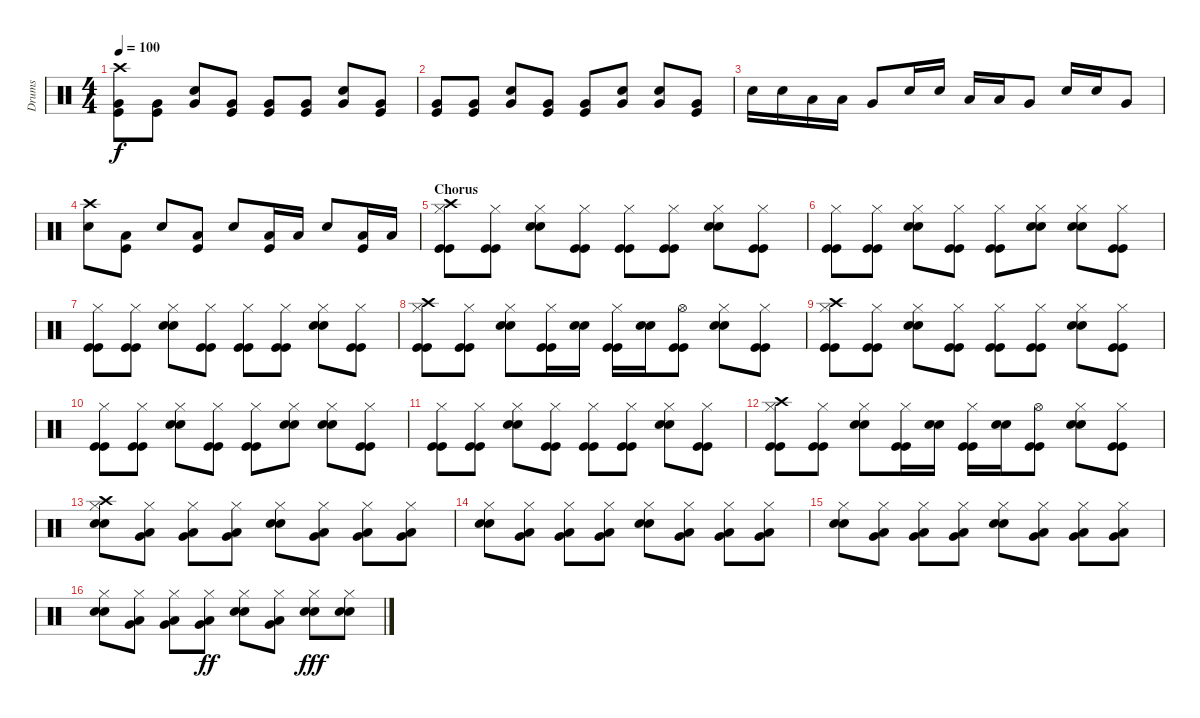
\track ("Drums" "Drums") {instrument percussion}
\staff {score}
\articulation defaults
\ts (4 4)
\tempo 100
\clef neutral
\ks c
("Crash high (hit)" "Very Low Tom (hit)" "Kick (hit)").8{dy f} ("Very Low Tom (hit)" "Kick (hit)").8 ("Very Low Tom (hit)" "Snare (hit) 2").8 ("Very Low Tom (hit)" "Kick (hit)").8 ("Very Low Tom (hit)" "Kick (hit)").8 ("Very Low Tom (hit)" "Kick (hit)").8 ("Very Low Tom (hit)" "Snare (hit) 2").8 ("Very Low Tom (hit)" "Kick (hit)").8 |
("Very Low Tom (hit)" "Kick (hit)").8 ("Very Low Tom (hit)" "Kick (hit)").8 ("Very Low Tom (hit)" "Snare (hit) 2").8 ("Very Low Tom (hit)" "Kick (hit)").8 ("Very Low Tom (hit)" "Kick (hit)").8 ("Very Low Tom (hit)" "Snare (hit) 2").8 ("Very Low Tom (hit)" "Snare (hit) 2").8 ("Very Low Tom (hit)" "Kick (hit)").8 |
"Snare (hit) 2".16 "Snare (hit) 2".16 "Low Tom (hit)".16 "Low Tom (hit)".16 "Very Low Tom (hit)".8 "Snare (hit) 2".16 "Snare (hit) 2".16 "Low Tom (hit)".16 "Low Tom (hit)".16 "Very Low Tom (hit)".8 "Snare (hit) 2".16 "Snare (hit) 2".16 "Very Low Tom (hit)".8 |
("Crash high (hit)" "Snare (hit) 2").8 ("Low Tom (hit)" "Kick (hit)").8 "Snare (hit) 2".8 ("Low Tom (hit)" "Kick (hit)").8 "Snare (hit) 2".8 ("Low Tom (hit)" "Kick (hit)").16 "Low Tom (hit)".16 "Snare (hit) 2".8 ("Low Tom (hit)" "Kick (hit)").16 "Low Tom (hit)".16 |
\section ("" "Chorus")
("Crash high (hit)" "Hi-Hat (closed)" "Kick (hit)" "Kick (hit)").8 ("Hi-Hat (closed)" "Kick (hit)" "Kick (hit)").8 ("Hi-Hat (closed)" "Snare (hit) 2" "Snare (hit) 2").8 ("Hi-Hat (closed)" "Kick (hit)" "Kick (hit)").8 ("Hi-Hat (closed)" "Kick (hit)" "Kick (hit)").8 ("Hi-Hat (closed)" "Kick (hit)" "Kick (hit)").8 ("Hi-Hat (closed)" "Snare (hit) 2" "Snare (hit) 2").8 ("Hi-Hat (closed)" "Kick (hit)" "Kick (hit)").8 |
("Hi-Hat (closed)" "Kick (hit)" "Kick (hit)").8 ("Hi-Hat (closed)" "Kick (hit)" "Kick (hit)").8 ("Hi-Hat (closed)" "Snare (hit) 2" "Snare (hit) 2").8 ("Hi-Hat (closed)" "Kick (hit)" "Kick (hit)").8 ("Hi-Hat (closed)" "Kick (hit)" "Kick (hit)").8 ("Hi-Hat (closed)" "Snare (hit) 2" "Snare (hit) 2").8 ("Hi-Hat (closed)" "Snare (hit) 2" "Snare (hit) 2").8 ("Hi-Hat (closed)" "Kick (hit)" "Kick (hit)").8 |
("Hi-Hat (closed)" "Kick (hit)" "Kick (hit)").8 ("Hi-Hat (closed)" "Kick (hit)" "Kick (hit)").8 ("Hi-Hat (closed)" "Snare (hit) 2" "Snare (hit) 2").8 ("Hi-Hat (closed)" "Kick (hit)" "Kick (hit)").8 ("Hi-Hat (closed)" "Kick (hit)" "Kick (hit)").8 ("Hi-Hat (closed)" "Kick (hit)" "Kick (hit)").8 ("Hi-Hat (closed)" "Snare (hit) 2" "Snare (hit) 2").8 ("Hi-Hat (closed)" "Kick (hit)" "Kick (hit)").8 |
("Crash high (hit)" "Hi-Hat (closed)" "Kick (hit)" "Kick (hit)").8 ("Hi-Hat (closed)" "Kick (hit)" "Kick (hit)").8 ("Hi-Hat (closed)" "Snare (hit) 2" "Snare (hit) 2").8 ("Hi-Hat (closed)" "Kick (hit)" "Kick (hit)").16 ("Snare (hit) 2" "Snare (hit) 2").16 ("Hi-Hat (closed)" "Kick (hit)" "Kick (hit)").16 ("Snare (hit) 2" "Snare (hit) 2").16 ("Hi-Hat (open)" "Kick (hit)" "Kick (hit)").8 ("Hi-Hat (closed)" "Snare (hit) 2" "Snare (hit) 2").8 ("Hi-Hat (closed)" "Kick (hit)" "Kick (hit)").8 |
("Crash high (hit)" "Hi-Hat (closed)" "Kick (hit)" "Kick (hit)").8 ("Hi-Hat (closed)" "Kick (hit)" "Kick (hit)").8 ("Hi-Hat (closed)" "Snare (hit) 2" "Snare (hit) 2").8 ("Hi-Hat (closed)" "Kick (hit)" "Kick (hit)").8 ("Hi-Hat (closed)" "Kick (hit)" "Kick (hit)").8 ("Hi-Hat (closed)" "Kick (hit)" "Kick (hit)").8 ("Hi-Hat (closed)" "Snare (hit) 2" "Snare (hit) 2").8 ("Hi-Hat (closed)" "Kick (hit)" "Kick (hit)").8 |
("Hi-Hat (closed)" "Kick (hit)" "Kick (hit)").8 ("Hi-Hat (closed)" "Kick (hit)" "Kick (hit)").8 ("Hi-Hat (closed)" "Snare (hit) 2" "Snare (hit) 2").8 ("Hi-Hat (closed)" "Kick (hit)" "Kick (hit)").8 ("Hi-Hat (closed)" "Kick (hit)" "Kick (hit)").8 ("Hi-Hat (closed)" "Snare (hit) 2" "Snare (hit) 2").8 ("Hi-Hat (closed)" "Snare (hit) 2" "Snare (hit) 2").8 ("Hi-Hat (closed)" "Kick (hit)" "Kick (hit)").8 |
("Hi-Hat (closed)" "Kick (hit)" "Kick (hit)").8 ("Hi-Hat (closed)" "Kick (hit)" "Kick (hit)").8 ("Hi-Hat (closed)" "Snare (hit) 2" "Snare (hit) 2").8 ("Hi-Hat (closed)" "Kick (hit)" "Kick (hit)").8 ("Hi-Hat (closed)" "Kick (hit)" "Kick (hit)").8 ("Hi-Hat (closed)" "Kick (hit)" "Kick (hit)").8 ("Hi-Hat (closed)" "Snare (hit) 2" "Snare (hit) 2").8 ("Hi-Hat (closed)" "Kick (hit)" "Kick (hit)").8 |
("Crash high (hit)" "Hi-Hat (closed)" "Kick (hit)" "Kick (hit)").8 ("Hi-Hat (closed)" "Kick (hit)" "Kick (hit)").8 ("Hi-Hat (closed)" "Snare (hit) 2" "Snare (hit) 2").8 ("Hi-Hat (closed)" "Kick (hit)" "Kick (hit)").16 ("Snare (hit) 2" "Snare (hit) 2").16 ("Hi-Hat (closed)" "Kick (hit)" "Kick (hit)").16 ("Snare (hit) 2" "Snare (hit) 2").16 ("Hi-Hat (open)" "Kick (hit)" "Kick (hit)").8 ("Hi-Hat (closed)" "Snare (hit) 2" "Snare (hit) 2").8 ("Hi-Hat (closed)" "Kick (hit)" "Kick (hit)").8 |
("Hi-Hat (closed)" "Crash high (hit)" "Snare (hit) 2" "Snare (hit) 2").8 ("Hi-Hat (closed)" "Low Tom (hit)" "Very Low Tom (hit)").8 ("Hi-Hat (closed)" "Low Tom (hit)" "Very Low Tom (hit)").8 ("Hi-Hat (closed)" "Low Tom (hit)" "Very Low Tom (hit)").8 ("Hi-Hat (closed)" "Snare (hit) 2" "Snare (hit) 2").8 ("Hi-Hat (closed)" "Low Tom (hit)" "Very Low Tom (hit)").8 ("Hi-Hat (closed)" "Low Tom (hit)" "Very Low Tom (hit)").8 ("Hi-Hat (closed)" "Low Tom (hit)" "Very Low Tom (hit)").8 |
("Hi-Hat (closed)" "Snare (hit) 2" "Snare (hit) 2").8 ("Hi-Hat (closed)" "Low Tom (hit)" "Very Low Tom (hit)").8 ("Hi-Hat (closed)" "Low Tom (hit)" "Very Low Tom (hit)").8 ("Hi-Hat (closed)" "Low Tom (hit)" "Very Low Tom (hit)").8 ("Hi-Hat (closed)" "Snare (hit) 2" "Snare (hit) 2").8 ("Hi-Hat (closed)" "Low Tom (hit)" "Very Low Tom (hit)").8 ("Hi-Hat (closed)" "Low Tom (hit)" "Very Low Tom (hit)").8 ("Hi-Hat (closed)" "Low Tom (hit)" "Very Low Tom (hit)").8 |
("Hi-Hat (closed)" "Snare (hit) 2" "Snare (hit) 2").8 ("Hi-Hat (closed)" "Low Tom (hit)" "Very Low Tom (hit)").8 ("Hi-Hat (closed)" "Low Tom (hit)" "Very Low Tom (hit)").8 ("Hi-Hat (closed)" "Low Tom (hit)" "Very Low Tom (hit)").8 ("Hi-Hat (closed)" "Snare (hit) 2" "Snare (hit) 2").8 ("Hi-Hat (closed)" "Low Tom (hit)" "Very Low Tom (hit)").8 ("Hi-Hat (closed)" "Low Tom (hit)" "Very Low Tom (hit)").8 ("Hi-Hat (closed)" "Low Tom (hit)" "Very Low Tom (hit)").8 |
("Hi-Hat (closed)" "Snare (hit) 2" "Snare (hit) 2").8 ("Hi-Hat (closed)" "Low Tom (hit)" "Very Low Tom (hit)").8 ("Hi-Hat (closed)" "Low Tom (hit)" "Very Low Tom (hit)").8 ("Hi-Hat (closed)" "Low Tom (hit)" "Very Low Tom (hit)").8{dy ff} ("Hi-Hat (closed)" "Snare (hit) 2" "Snare (hit) 2").8 ("Hi-Hat (closed)" "Low Tom (hit)" "Very Low Tom (hit)").8 ("Hi-Hat (closed)" "Snare (hit) 2" "Snare (hit) 2").8{dy fff} ("Hi-Hat (closed)" "Snare (hit) 2" "Snare (hit) 2").8
